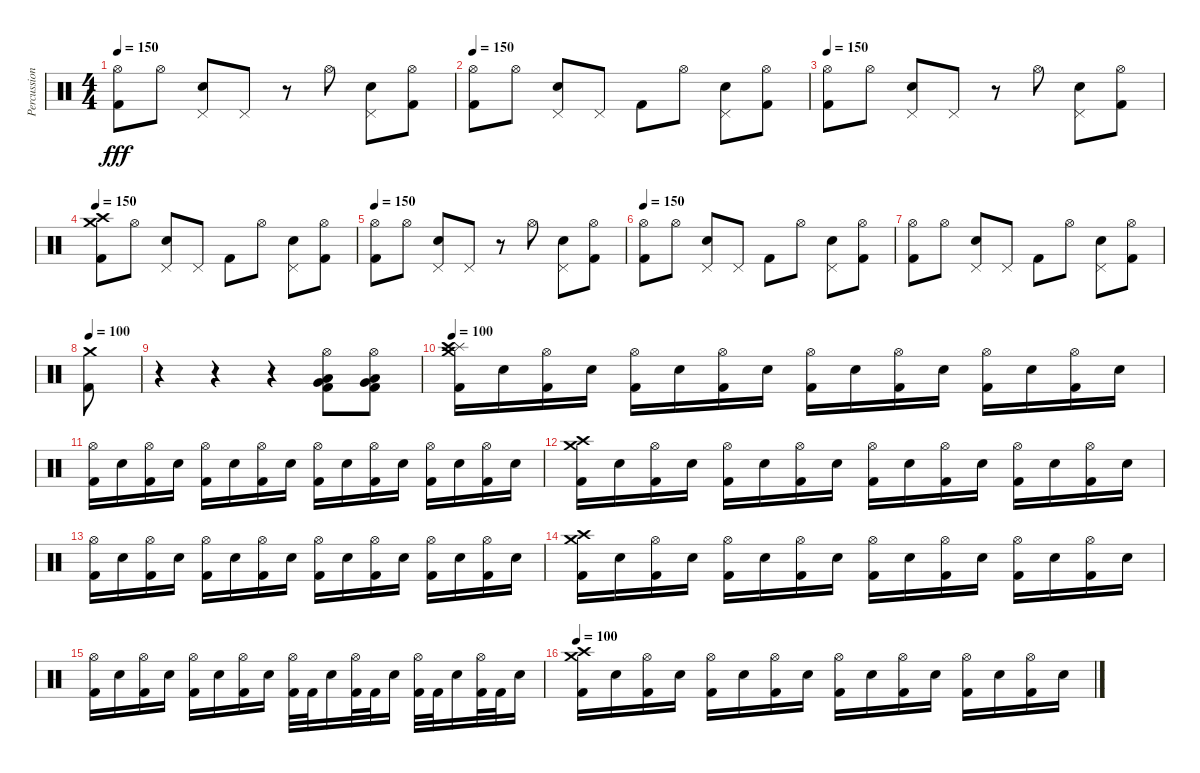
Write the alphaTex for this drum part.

\track ("Percussion" "Percussion") {instrument percussion}
\staff
\articulation defaults
\ts (4 4)
\tempo 150
\clef neutral
\ks c
("Hi-Hat (open)" "Kick (hit) 2").8{dy fff} "Hi-Hat (open)".8 ("Pedal Hi-Hat (hit)" "Snare (hit) 2").8 "Pedal Hi-Hat (hit)".8 r.8 "Hi-Hat (open)".8 ("Pedal Hi-Hat (hit)" "Snare (hit) 2").8 ("Hi-Hat (open)" "Kick (hit) 2").8 |
\tempo 150
("Hi-Hat (open)" "Kick (hit) 2").8 "Hi-Hat (open)".8 ("Pedal Hi-Hat (hit)" "Snare (hit) 2").8 "Pedal Hi-Hat (hit)".8 "Kick (hit) 2".8 "Hi-Hat (open)".8 ("Pedal Hi-Hat (hit)" "Snare (hit) 2").8 ("Hi-Hat (open)" "Kick (hit) 2").8 |
\tempo 150
("Hi-Hat (open)" "Kick (hit) 2").8 "Hi-Hat (open)".8 ("Pedal Hi-Hat (hit)" "Snare (hit) 2").8 "Pedal Hi-Hat (hit)".8 r.8 "Hi-Hat (open)".8 ("Pedal Hi-Hat (hit)" "Snare (hit) 2").8 ("Hi-Hat (open)" "Kick (hit) 2").8 |
\tempo 150
("Crash high (hit)" "Crash medium (hit)" "Kick (hit) 2").8 "Hi-Hat (open)".8 ("Pedal Hi-Hat (hit)" "Snare (hit) 2").8 "Pedal Hi-Hat (hit)".8 "Kick (hit) 2".8 "Hi-Hat (open)".8 ("Pedal Hi-Hat (hit)" "Snare (hit) 2").8 ("Hi-Hat (open)" "Kick (hit) 2").8 |
\tempo 150
("Hi-Hat (open)" "Kick (hit) 2").8 "Hi-Hat (open)".8 ("Pedal Hi-Hat (hit)" "Snare (hit) 2").8 "Pedal Hi-Hat (hit)".8 r.8 "Hi-Hat (open)".8 ("Pedal Hi-Hat (hit)" "Snare (hit) 2").8 ("Hi-Hat (open)" "Kick (hit) 2").8 |
\tempo 150
("Hi-Hat (open)" "Kick (hit) 2").8 "Hi-Hat (open)".8 ("Pedal Hi-Hat (hit)" "Snare (hit) 2").8 "Pedal Hi-Hat (hit)".8 "Kick (hit) 2".8 "Hi-Hat (open)".8 ("Pedal Hi-Hat (hit)" "Snare (hit) 2").8 ("Hi-Hat (open)" "Kick (hit) 2").8 |
("Hi-Hat (open)" "Kick (hit) 2").8 "Hi-Hat (open)".8 ("Pedal Hi-Hat (hit)" "Snare (hit) 2").8 "Pedal Hi-Hat (hit)".8 "Kick (hit) 2".8 "Hi-Hat (open)".8 ("Pedal Hi-Hat (hit)" "Snare (hit) 2").8 ("Hi-Hat (open)" "Kick (hit) 2").8 |
\tempo 100
("Crash medium (hit)" "Kick (hit) 2").8 |
r.4 r.4 r.4 ("Hi-Hat (open)" "Very Low Tom (hit)" "Low Floor Tom (hit)" "Kick (hit) 2").8 ("Hi-Hat (open)" "Very Low Tom (hit)" "Low Floor Tom (hit)" "Kick (hit) 2").8 |
\tempo 100
("Splash (hit)" "Crash high (hit)" "Crash medium (hit)" "Kick (hit) 2").16 "Snare (hit) 2".16 ("Hi-Hat (open)" "Kick (hit) 2").16 "Snare (hit) 2".16 ("Hi-Hat (open)" "Kick (hit) 2").16 "Snare (hit) 2".16 ("Hi-Hat (open)" "Kick (hit) 2").16 "Snare (hit) 2".16 ("Hi-Hat (open)" "Kick (hit) 2").16 "Snare (hit) 2".16 ("Hi-Hat (open)" "Kick (hit) 2").16 "Snare (hit) 2".16 ("Hi-Hat (open)" "Kick (hit) 2").16 "Snare (hit) 2".16 ("Hi-Hat (open)" "Kick (hit) 2").16 "Snare (hit) 2".16 |
("Hi-Hat (open)" "Kick (hit) 2").16 "Snare (hit) 2".16 ("Hi-Hat (open)" "Kick (hit) 2").16 "Snare (hit) 2".16 ("Hi-Hat (open)" "Kick (hit) 2").16 "Snare (hit) 2".16 ("Hi-Hat (open)" "Kick (hit) 2").16 "Snare (hit) 2".16 ("Hi-Hat (open)" "Kick (hit) 2").16 "Snare (hit) 2".16 ("Hi-Hat (open)" "Kick (hit) 2").16 "Snare (hit) 2".16 ("Hi-Hat (open)" "Kick (hit) 2").16 "Snare (hit) 2".16 ("Hi-Hat (open)" "Kick (hit) 2").16 "Snare (hit) 2".16 |
("Crash high (hit)" "Crash medium (hit)" "Kick (hit) 2").16 "Snare (hit) 2".16 ("Hi-Hat (open)" "Kick (hit) 2").16 "Snare (hit) 2".16 ("Hi-Hat (open)" "Kick (hit) 2").16 "Snare (hit) 2".16 ("Hi-Hat (open)" "Kick (hit) 2").16 "Snare (hit) 2".16 ("Hi-Hat (open)" "Kick (hit) 2").16 "Snare (hit) 2".16 ("Hi-Hat (open)" "Kick (hit) 2").16 "Snare (hit) 2".16 ("Hi-Hat (open)" "Kick (hit) 2").16 "Snare (hit) 2".16 ("Hi-Hat (open)" "Kick (hit) 2").16 "Snare (hit) 2".16 |
("Hi-Hat (open)" "Kick (hit) 2").16 "Snare (hit) 2".16 ("Hi-Hat (open)" "Kick (hit) 2").16 "Snare (hit) 2".16 ("Hi-Hat (open)" "Kick (hit) 2").16 "Snare (hit) 2".16 ("Hi-Hat (open)" "Kick (hit) 2").16 "Snare (hit) 2".16 ("Hi-Hat (open)" "Kick (hit) 2").16 "Snare (hit) 2".16 ("Hi-Hat (open)" "Kick (hit) 2").16 "Snare (hit) 2".16 ("Hi-Hat (open)" "Kick (hit) 2").16 "Snare (hit) 2".16 ("Hi-Hat (open)" "Kick (hit) 2").16 "Snare (hit) 2".16 |
("Crash high (hit)" "Crash medium (hit)" "Kick (hit) 2").16 "Snare (hit) 2".16 ("Hi-Hat (open)" "Kick (hit) 2").16 "Snare (hit) 2".16 ("Hi-Hat (open)" "Kick (hit) 2").16 "Snare (hit) 2".16 ("Hi-Hat (open)" "Kick (hit) 2").16 "Snare (hit) 2".16 ("Hi-Hat (open)" "Kick (hit) 2").16 "Snare (hit) 2".16 ("Hi-Hat (open)" "Kick (hit) 2").16 "Snare (hit) 2".16 ("Hi-Hat (open)" "Kick (hit) 2").16 "Snare (hit) 2".16 ("Hi-Hat (open)" "Kick (hit) 2").16 "Snare (hit) 2".16 |
("Hi-Hat (open)" "Kick (hit) 2").16 "Snare (hit) 2".16 ("Hi-Hat (open)" "Kick (hit) 2").16 "Snare (hit) 2".16 ("Hi-Hat (open)" "Kick (hit) 2").16 "Snare (hit) 2".16 ("Hi-Hat (open)" "Kick (hit) 2").16 "Snare (hit) 2".16 ("Hi-Hat (open)" "Kick (hit) 2").32 "Kick (hit) 2".32 "Snare (hit) 2".16 ("Hi-Hat (open)" "Kick (hit) 2").32 "Kick (hit) 2".32 "Snare (hit) 2".16 ("Hi-Hat (open)" "Kick (hit) 2").32 "Kick (hit) 2".32 "Snare (hit) 2".16 ("Hi-Hat (open)" "Kick (hit) 2").32 "Kick (hit) 2".32 "Snare (hit) 2".16 |
\tempo 100
("Crash high (hit)" "Crash medium (hit)" "Kick (hit) 2").16 "Snare (hit) 2".16 ("Hi-Hat (open)" "Kick (hit) 2").16 "Snare (hit) 2".16 ("Hi-Hat (open)" "Kick (hit) 2").16 "Snare (hit) 2".16 ("Hi-Hat (open)" "Kick (hit) 2").16 "Snare (hit) 2".16 ("Hi-Hat (open)" "Kick (hit) 2").16 "Snare (hit) 2".16 ("Hi-Hat (open)" "Kick (hit) 2").16 "Snare (hit) 2".16 ("Hi-Hat (open)" "Kick (hit) 2").16 "Snare (hit) 2".16 ("Hi-Hat (open)" "Kick (hit) 2").16 "Snare (hit) 2".16
